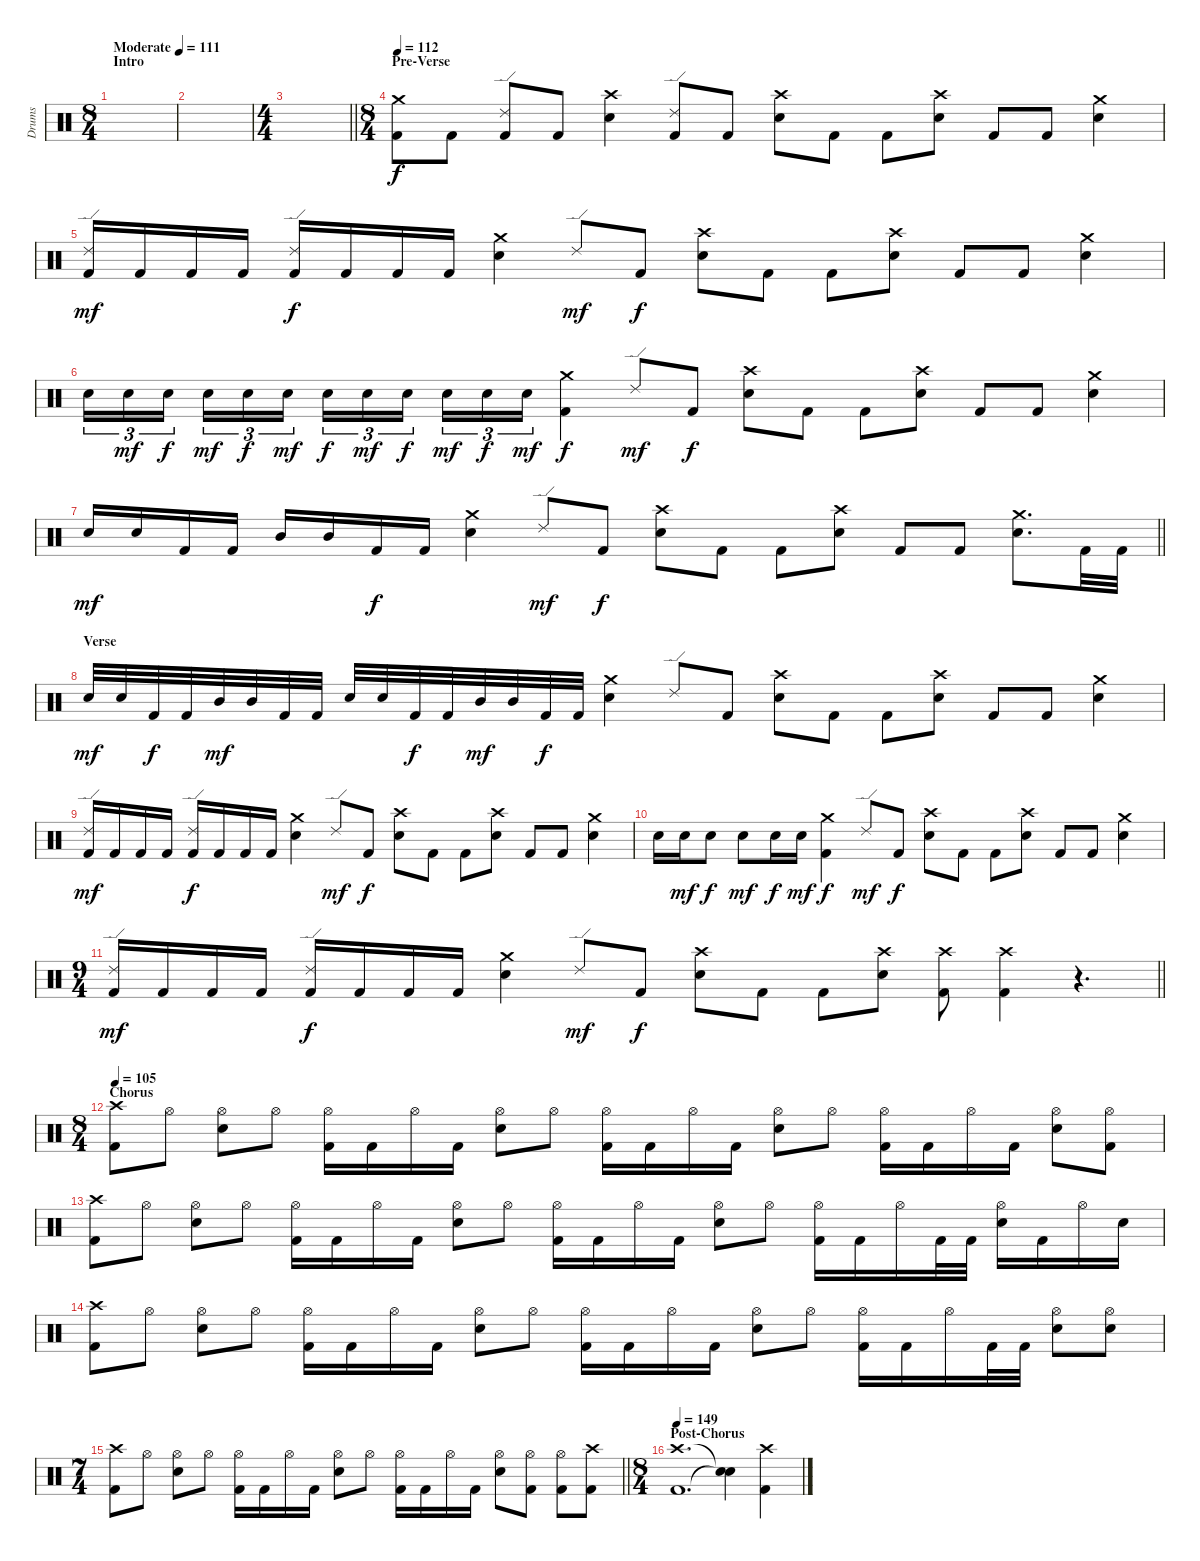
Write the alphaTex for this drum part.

\track ("Drums" "Drums") {instrument percussion}
\staff {score}
\articulation defaults
\ts (8 4)
\section ("" "Intro")
\tempo (111 "Moderate")
\tempo 175
\tempo (111 "Moderate")
\clef neutral
\ks c
|
|
\ts (4 4)
\barLineRight lightlight
|
\ts (8 4)
\section ("" "Pre-Verse")
\tempo 112
("Crash medium (hit)" "Kick (hit) 2").8 "Kick (hit) 2".8 ("Ride (edge) 2" "Kick (hit) 2").8 "Kick (hit) 2".8 ("Crash high (hit)" "Snare (hit) 2").4 ("Ride (edge) 2" "Kick (hit) 2").8 "Kick (hit) 2".8 ("Crash high (hit)" "Snare (hit) 2").8 "Kick (hit) 2".8 "Kick (hit) 2".8 ("Crash high (hit)" "Snare (hit) 2").8 "Kick (hit) 2".8 "Kick (hit) 2".8 ("Crash medium (hit)" "Snare (hit) 2").4 |
("Ride (edge) 2" "Kick (hit) 2").16{dy mf} "Kick (hit) 2".16 "Kick (hit) 2".16 "Kick (hit) 2".16 ("Ride (edge) 2" "Kick (hit) 2").16{dy f} "Kick (hit) 2".16 "Kick (hit) 2".16 "Kick (hit) 2".16 ("Crash medium (hit)" "Snare (hit) 2").4 "Ride (edge) 2".8{dy mf} "Kick (hit) 2".8{dy f} ("Crash high (hit)" "Snare (hit) 2").8 "Kick (hit) 2".8 "Kick (hit) 2".8 ("Crash high (hit)" "Snare (hit) 2").8 "Kick (hit) 2".8 "Kick (hit) 2".8 ("Crash medium (hit)" "Snare (hit) 2").4 |
"Snare (hit) 2".16{tu (3 2)} "Snare (hit) 2".16{tu (3 2) dy mf} "Snare (hit) 2".16{tu (3 2) dy f beam splitsecondary} "Snare (hit) 2".16{tu (3 2) dy mf} "Snare (hit) 2".16{tu (3 2) dy f} "Snare (hit) 2".16{tu (3 2) dy mf} "Snare (hit) 2".16{tu (3 2) dy f} "Snare (hit) 2".16{tu (3 2) dy mf} "Snare (hit) 2".16{tu (3 2) dy f beam splitsecondary} "Snare (hit) 2".16{tu (3 2) dy mf} "Snare (hit) 2".16{tu (3 2) dy f} "Snare (hit) 2".16{tu (3 2) dy mf} ("Crash medium (hit)" "Kick (hit) 2").4{dy f} "Ride (edge) 2".8{dy mf} "Kick (hit) 2".8{dy f} ("Crash high (hit)" "Snare (hit) 2").8 "Kick (hit) 2".8 "Kick (hit) 2".8 ("Crash high (hit)" "Snare (hit) 2").8 "Kick (hit) 2".8 "Kick (hit) 2".8 ("Crash medium (hit)" "Snare (hit) 2").4 |
\barLineRight lightlight "Snare (hit) 2".16{dy mf} "Snare (hit) 2".16 "Kick (hit) 2".16 "Kick (hit) 2".16 "Mid Tom (hit)".16 "Mid Tom (hit)".16 "Kick (hit) 2".16{dy f} "Kick (hit) 2".16
("Crash medium (hit)" "Snare (hit) 2").4 "Ride (edge) 2".8{dy mf} "Kick (hit) 2".8{dy f} ("Crash high (hit)" "Snare (hit) 2").8 "Kick (hit) 2".8 "Kick (hit) 2".8 ("Crash high (hit)" "Snare (hit) 2").8 "Kick (hit) 2".8 "Kick (hit) 2".8 ("Crash medium (hit)" "Snare (hit) 2").8{d} "Kick (hit) 2".32 "Kick (hit) 2".32 |
\section ("" "Verse")
"Snare (hit) 2".32{dy mf} "Snare (hit) 2".32 "Kick (hit) 2".32{dy f} "Kick (hit) 2".32 "Mid Tom (hit)".32{dy mf} "Mid Tom (hit)".32 "Kick (hit) 2".32 "Kick (hit) 2".32 "Snare (hit) 2".32 "Snare (hit) 2".32 "Kick (hit) 2".32{dy f} "Kick (hit) 2".32 "Mid Tom (hit)".32{dy mf} "Mid Tom (hit)".32 "Kick (hit) 2".32{dy f} "Kick (hit) 2".32 ("Crash medium (hit)" "Snare (hit) 2").4 "Ride (edge) 2".8 "Kick (hit) 2".8 ("Crash high (hit)" "Snare (hit) 2").8 "Kick (hit) 2".8 "Kick (hit) 2".8 ("Crash high (hit)" "Snare (hit) 2").8 "Kick (hit) 2".8 "Kick (hit) 2".8 ("Crash medium (hit)" "Snare (hit) 2").4 |
("Ride (edge) 2" "Kick (hit) 2").16{dy mf} "Kick (hit) 2".16 "Kick (hit) 2".16 "Kick (hit) 2".16 ("Ride (edge) 2" "Kick (hit) 2").16{dy f} "Kick (hit) 2".16 "Kick (hit) 2".16 "Kick (hit) 2".16 ("Crash medium (hit)" "Snare (hit) 2").4 "Ride (edge) 2".8{dy mf} "Kick (hit) 2".8{dy f} ("Crash high (hit)" "Snare (hit) 2").8 "Kick (hit) 2".8 "Kick (hit) 2".8 ("Crash high (hit)" "Snare (hit) 2").8 "Kick (hit) 2".8 "Kick (hit) 2".8 ("Crash medium (hit)" "Snare (hit) 2").4 |
"Snare (hit) 2".16 "Snare (hit) 2".16{dy mf} "Snare (hit) 2".8{dy f} "Snare (hit) 2".8{dy mf} "Snare (hit) 2".16{dy f} "Snare (hit) 2".16{dy mf} ("Crash medium (hit)" "Kick (hit) 2").4{dy f} "Ride (edge) 2".8{dy mf} "Kick (hit) 2".8{dy f} ("Crash high (hit)" "Snare (hit) 2").8 "Kick (hit) 2".8 "Kick (hit) 2".8 ("Crash high (hit)" "Snare (hit) 2").8 "Kick (hit) 2".8 "Kick (hit) 2".8 ("Crash medium (hit)" "Snare (hit) 2").4 |
\ts (9 4)
\barLineRight lightlight
("Ride (edge) 2" "Kick (hit) 2").16{dy mf} "Kick (hit) 2".16 "Kick (hit) 2".16 "Kick (hit) 2".16 ("Ride (edge) 2" "Kick (hit) 2").16{dy f} "Kick (hit) 2".16 "Kick (hit) 2".16 "Kick (hit) 2".16 ("Crash medium (hit)" "Snare (hit) 2").4 "Ride (edge) 2".8{dy mf} "Kick (hit) 2".8{dy f} ("Crash high (hit)" "Snare (hit) 2").8 "Kick (hit) 2".8 "Kick (hit) 2".8 ("Crash high (hit)" "Snare (hit) 2").8 ("Crash high (hit)" "Kick (hit) 2").8 ("Crash high (hit)" "Kick (hit) 2").4 r.4{d} |
\ts (8 4)
\section ("" "Chorus")
\tempo 105
("Crash high (hit)" "Kick (hit) 2").8 "Hi-Hat (open)".8 ("Hi-Hat (open)" "Snare (hit) 2").8 "Hi-Hat (open)".8 ("Hi-Hat (open)" "Kick (hit) 2").16 "Kick (hit) 2".16 "Hi-Hat (open)".16 "Kick (hit) 2".16 ("Hi-Hat (open)" "Snare (hit) 2").8 "Hi-Hat (open)".8 ("Hi-Hat (open)" "Kick (hit) 2").16 "Kick (hit) 2".16 "Hi-Hat (open)".16 "Kick (hit) 2".16 ("Hi-Hat (open)" "Snare (hit) 2").8 "Hi-Hat (open)".8 ("Hi-Hat (open)" "Kick (hit) 2").16 "Kick (hit) 2".16 "Hi-Hat (open)".16 "Kick (hit) 2".16 ("Hi-Hat (open)" "Snare (hit) 2").8 ("Hi-Hat (open)" "Kick (hit) 2").8 |
("Crash high (hit)" "Kick (hit) 2").8 "Hi-Hat (open)".8 ("Hi-Hat (open)" "Snare (hit) 2").8 "Hi-Hat (open)".8 ("Hi-Hat (open)" "Kick (hit) 2").16 "Kick (hit) 2".16 "Hi-Hat (open)".16 "Kick (hit) 2".16 ("Hi-Hat (open)" "Snare (hit) 2").8 "Hi-Hat (open)".8 ("Hi-Hat (open)" "Kick (hit) 2").16 "Kick (hit) 2".16 "Hi-Hat (open)".16 "Kick (hit) 2".16 ("Hi-Hat (open)" "Snare (hit) 2").8 "Hi-Hat (open)".8 ("Hi-Hat (open)" "Kick (hit) 2").16 "Kick (hit) 2".16 "Hi-Hat (open)".16 "Kick (hit) 2".32 "Kick (hit) 2".32 ("Hi-Hat (open)" "Snare (hit) 2").16 "Kick (hit) 2".16 "Hi-Hat (open)".16 "Snare (hit) 2".16 |
("Crash high (hit)" "Kick (hit) 2").8 "Hi-Hat (open)".8 ("Hi-Hat (open)" "Snare (hit) 2").8 "Hi-Hat (open)".8 ("Hi-Hat (open)" "Kick (hit) 2").16 "Kick (hit) 2".16 "Hi-Hat (open)".16 "Kick (hit) 2".16 ("Hi-Hat (open)" "Snare (hit) 2").8 "Hi-Hat (open)".8 ("Hi-Hat (open)" "Kick (hit) 2").16 "Kick (hit) 2".16 "Hi-Hat (open)".16 "Kick (hit) 2".16 ("Hi-Hat (open)" "Snare (hit) 2").8 "Hi-Hat (open)".8 ("Hi-Hat (open)" "Kick (hit) 2").16 "Kick (hit) 2".16 "Hi-Hat (open)".16 "Kick (hit) 2".32 "Kick (hit) 2".32 ("Hi-Hat (open)" "Snare (hit) 2").8 ("Hi-Hat (open)" "Snare (hit) 2").8 |
\ts (7 4)
\barLineRight lightlight
("Crash high (hit)" "Kick (hit) 2").8 "Hi-Hat (open)".8 ("Hi-Hat (open)" "Snare (hit) 2").8 "Hi-Hat (open)".8 ("Hi-Hat (open)" "Kick (hit) 2").16 "Kick (hit) 2".16 "Hi-Hat (open)".16 "Kick (hit) 2".16 ("Hi-Hat (open)" "Snare (hit) 2").8 "Hi-Hat (open)".8 ("Hi-Hat (open)" "Kick (hit) 2").16 "Kick (hit) 2".16 "Hi-Hat (open)".16 "Kick (hit) 2".16 ("Hi-Hat (open)" "Snare (hit) 2").8 ("Hi-Hat (open)" "Kick (hit) 2").8 ("Hi-Hat (open)" "Kick (hit) 2").8 ("Crash high (hit)" "Kick (hit) 2").8 |
\ts (8 4)
\section ("" "Post-Chorus")
\tempo 149
("Crash high (hit)" "Kick (hit) 2").1{d} ("Snare (hit)"{t} "Snare (hit)"{t}).4 ("Crash high (hit)" "Kick (hit) 2").4
